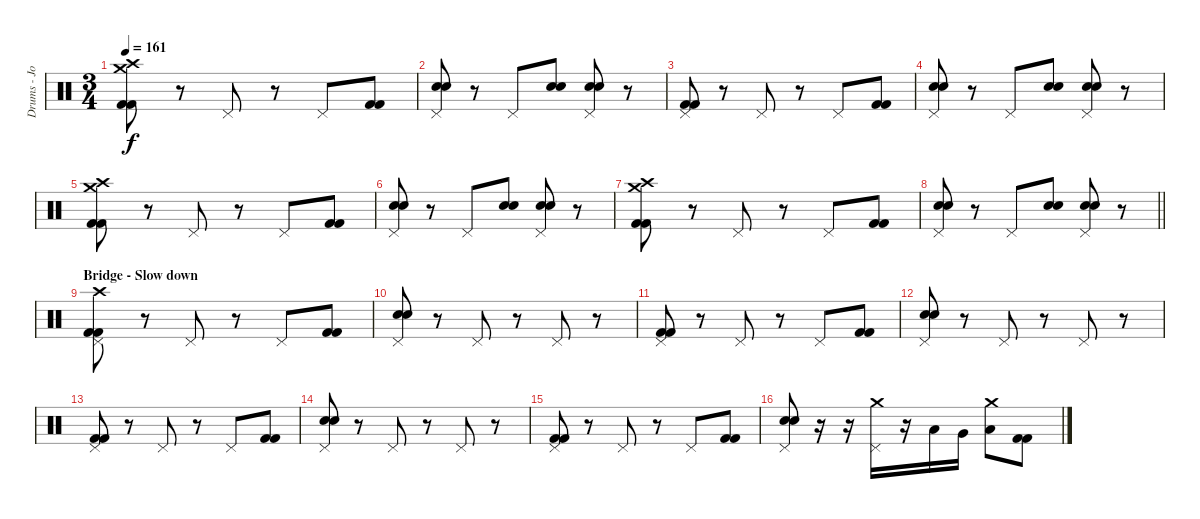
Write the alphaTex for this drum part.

\track ("Drums - Jon Wilkes" "Drums - Jo") {instrument percussion}
\staff {score}
\articulation defaults
\ts (3 4)
\tempo 161
\clef neutral
\ks c
("Crash medium (hit)" "Crash high (hit)" "Kick (hit) 2" "Kick (hit) 2").8{dy f} r.8 "Pedal Hi-Hat (hit)".8 r.8 "Pedal Hi-Hat (hit)".8 ("Kick (hit) 2" "Kick (hit) 2").8 |
("Pedal Hi-Hat (hit)" "Electric Snare (hit)" "Electric Snare (hit)").8 r.8 "Pedal Hi-Hat (hit)".8 ("Electric Snare (hit)" "Electric Snare (hit)").8 ("Pedal Hi-Hat (hit)" "Electric Snare (hit)" "Electric Snare (hit)").8 r.8 |
("Pedal Hi-Hat (hit)" "Kick (hit) 2" "Kick (hit) 2").8 r.8 "Pedal Hi-Hat (hit)".8 r.8 "Pedal Hi-Hat (hit)".8 ("Kick (hit) 2" "Kick (hit) 2").8 |
("Pedal Hi-Hat (hit)" "Electric Snare (hit)" "Electric Snare (hit)").8 r.8 "Pedal Hi-Hat (hit)".8 ("Electric Snare (hit)" "Electric Snare (hit)").8 ("Pedal Hi-Hat (hit)" "Electric Snare (hit)" "Electric Snare (hit)").8 r.8 |
("Crash medium (hit)" "Crash high (hit)" "Kick (hit) 2" "Kick (hit) 2").8 r.8 "Pedal Hi-Hat (hit)".8 r.8 "Pedal Hi-Hat (hit)".8 ("Kick (hit) 2" "Kick (hit) 2").8 |
("Pedal Hi-Hat (hit)" "Electric Snare (hit)" "Electric Snare (hit)").8 r.8 "Pedal Hi-Hat (hit)".8 ("Electric Snare (hit)" "Electric Snare (hit)").8 ("Pedal Hi-Hat (hit)" "Electric Snare (hit)" "Electric Snare (hit)").8 r.8 |
("Crash medium (hit)" "Crash high (hit)" "Kick (hit) 2" "Kick (hit) 2").8 r.8 "Pedal Hi-Hat (hit)".8 r.8 "Pedal Hi-Hat (hit)".8 ("Kick (hit) 2" "Kick (hit) 2").8 |
\barLineRight lightlight
("Pedal Hi-Hat (hit)" "Electric Snare (hit)" "Electric Snare (hit)").8 r.8 "Pedal Hi-Hat (hit)".8 ("Electric Snare (hit)" "Electric Snare (hit)").8 ("Pedal Hi-Hat (hit)" "Electric Snare (hit)" "Electric Snare (hit)").8 r.8 |
\section ("" "Bridge - Slow down")
("Crash high (hit)" "Pedal Hi-Hat (hit)" "Kick (hit) 2" "Kick (hit) 2").8 r.8 "Pedal Hi-Hat (hit)".8 r.8 "Pedal Hi-Hat (hit)".8 ("Kick (hit) 2" "Kick (hit) 2").8 |
("Pedal Hi-Hat (hit)" "Electric Snare (hit)" "Electric Snare (hit)").8 r.8 "Pedal Hi-Hat (hit)".8 r.8 "Pedal Hi-Hat (hit)".8 r.8 |
("Pedal Hi-Hat (hit)" "Kick (hit) 2" "Kick (hit) 2").8 r.8 "Pedal Hi-Hat (hit)".8 r.8 "Pedal Hi-Hat (hit)".8 ("Kick (hit) 2" "Kick (hit) 2").8 |
("Pedal Hi-Hat (hit)" "Electric Snare (hit)" "Electric Snare (hit)").8 r.8 "Pedal Hi-Hat (hit)".8 r.8 "Pedal Hi-Hat (hit)".8 r.8 |
("Pedal Hi-Hat (hit)" "Kick (hit) 2" "Kick (hit) 2").8 r.8 "Pedal Hi-Hat (hit)".8 r.8 "Pedal Hi-Hat (hit)".8 ("Kick (hit) 2" "Kick (hit) 2").8 |
("Pedal Hi-Hat (hit)" "Electric Snare (hit)" "Electric Snare (hit)").8 r.8 "Pedal Hi-Hat (hit)".8 r.8 "Pedal Hi-Hat (hit)".8 r.8 |
("Pedal Hi-Hat (hit)" "Kick (hit) 2" "Kick (hit) 2").8 r.8 "Pedal Hi-Hat (hit)".8 r.8 "Pedal Hi-Hat (hit)".8 ("Kick (hit) 2" "Kick (hit) 2").8 |
("Pedal Hi-Hat (hit)" "Electric Snare (hit)" "Electric Snare (hit)").8 r.16 r.16 ("Crash medium (hit)" "Pedal Hi-Hat (hit)").16 r.16 "Low Tom (hit)".16 "Very Low Tom (hit)".16 ("Crash medium (hit)" "Low Floor Tom (hit)").8 ("Kick (hit) 2" "Kick (hit) 2").8
